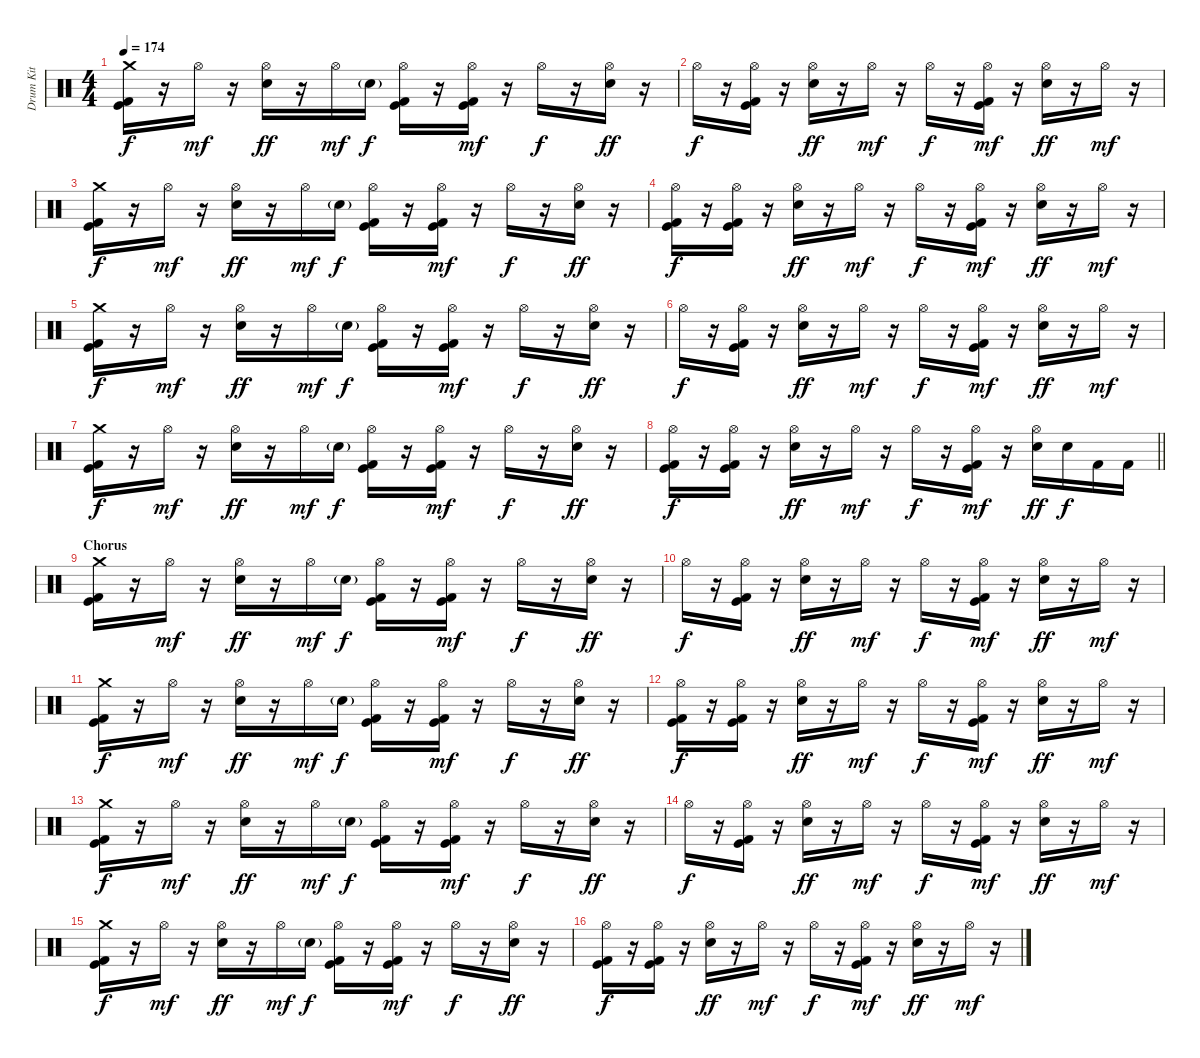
\track ("Drum Kit" "Drum Kit") {instrument percussion}
\staff {score}
\articulation defaults
\ts (4 4)
\tempo 174
\clef neutral
\ks c
("Crash medium (hit)" "Kick (hit)" "Kick (hit) 2").16{dy f} r.16 "Hi-Hat (open)".16{dy mf} r.16 ("Hi-Hat (open)" "Electric Snare (hit)").16{dy ff} r.16 "Hi-Hat (open)".16{dy mf} "Electric Snare (hit)"{g}.16{dy f} ("Hi-Hat (open)" "Kick (hit)" "Kick (hit) 2").16 r.16 ("Hi-Hat (open)" "Kick (hit)" "Kick (hit) 2").16{dy mf} r.16 "Hi-Hat (open)".16{dy f} r.16 ("Hi-Hat (open)" "Electric Snare (hit)").16{dy ff} r.16 |
"Hi-Hat (open)".16{dy f} r.16 ("Hi-Hat (open)" "Kick (hit)" "Kick (hit) 2").16 r.16 ("Hi-Hat (open)" "Electric Snare (hit)").16{dy ff} r.16 "Hi-Hat (open)".16{dy mf} r.16 "Hi-Hat (open)".16{dy f} r.16 ("Hi-Hat (open)" "Kick (hit)" "Kick (hit) 2").16{dy mf} r.16 ("Hi-Hat (open)" "Electric Snare (hit)").16{dy ff} r.16 "Hi-Hat (open)".16{dy mf} r.16 |
("Crash medium (hit)" "Kick (hit)" "Kick (hit) 2").16{dy f} r.16 "Hi-Hat (open)".16{dy mf} r.16 ("Hi-Hat (open)" "Electric Snare (hit)").16{dy ff} r.16 "Hi-Hat (open)".16{dy mf} "Electric Snare (hit)"{g}.16{dy f} ("Hi-Hat (open)" "Kick (hit)" "Kick (hit) 2").16 r.16 ("Hi-Hat (open)" "Kick (hit)" "Kick (hit) 2").16{dy mf} r.16 "Hi-Hat (open)".16{dy f} r.16 ("Hi-Hat (open)" "Electric Snare (hit)").16{dy ff} r.16 |
("Hi-Hat (open)" "Kick (hit)" "Kick (hit) 2").16{dy f} r.16 ("Hi-Hat (open)" "Kick (hit)" "Kick (hit) 2").16 r.16 ("Hi-Hat (open)" "Electric Snare (hit)").16{dy ff} r.16 "Hi-Hat (open)".16{dy mf} r.16 "Hi-Hat (open)".16{dy f} r.16 ("Hi-Hat (open)" "Kick (hit)" "Kick (hit) 2").16{dy mf} r.16 ("Hi-Hat (open)" "Electric Snare (hit)").16{dy ff} r.16 "Hi-Hat (open)".16{dy mf} r.16 |
("Crash medium (hit)" "Kick (hit)" "Kick (hit) 2").16{dy f} r.16 "Hi-Hat (open)".16{dy mf} r.16 ("Hi-Hat (open)" "Electric Snare (hit)").16{dy ff} r.16 "Hi-Hat (open)".16{dy mf} "Electric Snare (hit)"{g}.16{dy f} ("Hi-Hat (open)" "Kick (hit)" "Kick (hit) 2").16 r.16 ("Hi-Hat (open)" "Kick (hit)" "Kick (hit) 2").16{dy mf} r.16 "Hi-Hat (open)".16{dy f} r.16 ("Hi-Hat (open)" "Electric Snare (hit)").16{dy ff} r.16 |
"Hi-Hat (open)".16{dy f} r.16 ("Hi-Hat (open)" "Kick (hit)" "Kick (hit) 2").16 r.16 ("Hi-Hat (open)" "Electric Snare (hit)").16{dy ff} r.16 "Hi-Hat (open)".16{dy mf} r.16 "Hi-Hat (open)".16{dy f} r.16 ("Hi-Hat (open)" "Kick (hit)" "Kick (hit) 2").16{dy mf} r.16 ("Hi-Hat (open)" "Electric Snare (hit)").16{dy ff} r.16 "Hi-Hat (open)".16{dy mf} r.16 |
("Crash medium (hit)" "Kick (hit)" "Kick (hit) 2").16{dy f} r.16 "Hi-Hat (open)".16{dy mf} r.16 ("Hi-Hat (open)" "Electric Snare (hit)").16{dy ff} r.16 "Hi-Hat (open)".16{dy mf} "Electric Snare (hit)"{g}.16{dy f} ("Hi-Hat (open)" "Kick (hit)" "Kick (hit) 2").16 r.16 ("Hi-Hat (open)" "Kick (hit)" "Kick (hit) 2").16{dy mf} r.16 "Hi-Hat (open)".16{dy f} r.16 ("Hi-Hat (open)" "Electric Snare (hit)").16{dy ff} r.16 |
\barLineRight lightlight
("Hi-Hat (open)" "Kick (hit)" "Kick (hit) 2").16{dy f} r.16 ("Hi-Hat (open)" "Kick (hit)" "Kick (hit) 2").16 r.16 ("Hi-Hat (open)" "Electric Snare (hit)").16{dy ff} r.16 "Hi-Hat (open)".16{dy mf} r.16 "Hi-Hat (open)".16{dy f} r.16 ("Hi-Hat (open)" "Kick (hit)" "Kick (hit) 2").16{dy mf} r.16 ("Hi-Hat (open)" "Electric Snare (hit)").16{dy ff} "Electric Snare (hit)".16{dy f} "Kick (hit) 2".16 "Kick (hit) 2".16 |
\section ("" "Chorus")
("Crash medium (hit)" "Kick (hit)" "Kick (hit) 2").16 r.16 "Hi-Hat (open)".16{dy mf} r.16 ("Hi-Hat (open)" "Electric Snare (hit)").16{dy ff} r.16 "Hi-Hat (open)".16{dy mf} "Electric Snare (hit)"{g}.16{dy f} ("Hi-Hat (open)" "Kick (hit)" "Kick (hit) 2").16 r.16 ("Hi-Hat (open)" "Kick (hit)" "Kick (hit) 2").16{dy mf} r.16 "Hi-Hat (open)".16{dy f} r.16 ("Hi-Hat (open)" "Electric Snare (hit)").16{dy ff} r.16 |
"Hi-Hat (open)".16{dy f} r.16 ("Hi-Hat (open)" "Kick (hit)" "Kick (hit) 2").16 r.16 ("Hi-Hat (open)" "Electric Snare (hit)").16{dy ff} r.16 "Hi-Hat (open)".16{dy mf} r.16 "Hi-Hat (open)".16{dy f} r.16 ("Hi-Hat (open)" "Kick (hit)" "Kick (hit) 2").16{dy mf} r.16 ("Hi-Hat (open)" "Electric Snare (hit)").16{dy ff} r.16 "Hi-Hat (open)".16{dy mf} r.16 |
("Crash medium (hit)" "Kick (hit)" "Kick (hit) 2").16{dy f} r.16 "Hi-Hat (open)".16{dy mf} r.16 ("Hi-Hat (open)" "Electric Snare (hit)").16{dy ff} r.16 "Hi-Hat (open)".16{dy mf} "Electric Snare (hit)"{g}.16{dy f} ("Hi-Hat (open)" "Kick (hit)" "Kick (hit) 2").16 r.16 ("Hi-Hat (open)" "Kick (hit)" "Kick (hit) 2").16{dy mf} r.16 "Hi-Hat (open)".16{dy f} r.16 ("Hi-Hat (open)" "Electric Snare (hit)").16{dy ff} r.16 |
("Hi-Hat (open)" "Kick (hit)" "Kick (hit) 2").16{dy f} r.16 ("Hi-Hat (open)" "Kick (hit)" "Kick (hit) 2").16 r.16 ("Hi-Hat (open)" "Electric Snare (hit)").16{dy ff} r.16 "Hi-Hat (open)".16{dy mf} r.16 "Hi-Hat (open)".16{dy f} r.16 ("Hi-Hat (open)" "Kick (hit)" "Kick (hit) 2").16{dy mf} r.16 ("Hi-Hat (open)" "Electric Snare (hit)").16{dy ff} r.16 "Hi-Hat (open)".16{dy mf} r.16 |
("Crash medium (hit)" "Kick (hit)" "Kick (hit) 2").16{dy f} r.16 "Hi-Hat (open)".16{dy mf} r.16 ("Hi-Hat (open)" "Electric Snare (hit)").16{dy ff} r.16 "Hi-Hat (open)".16{dy mf} "Electric Snare (hit)"{g}.16{dy f} ("Hi-Hat (open)" "Kick (hit)" "Kick (hit) 2").16 r.16 ("Hi-Hat (open)" "Kick (hit)" "Kick (hit) 2").16{dy mf} r.16 "Hi-Hat (open)".16{dy f} r.16 ("Hi-Hat (open)" "Electric Snare (hit)").16{dy ff} r.16 |
"Hi-Hat (open)".16{dy f} r.16 ("Hi-Hat (open)" "Kick (hit)" "Kick (hit) 2").16 r.16 ("Hi-Hat (open)" "Electric Snare (hit)").16{dy ff} r.16 "Hi-Hat (open)".16{dy mf} r.16 "Hi-Hat (open)".16{dy f} r.16 ("Hi-Hat (open)" "Kick (hit)" "Kick (hit) 2").16{dy mf} r.16 ("Hi-Hat (open)" "Electric Snare (hit)").16{dy ff} r.16 "Hi-Hat (open)".16{dy mf} r.16 |
("Crash medium (hit)" "Kick (hit)" "Kick (hit) 2").16{dy f} r.16 "Hi-Hat (open)".16{dy mf} r.16 ("Hi-Hat (open)" "Electric Snare (hit)").16{dy ff} r.16 "Hi-Hat (open)".16{dy mf} "Electric Snare (hit)"{g}.16{dy f} ("Hi-Hat (open)" "Kick (hit)" "Kick (hit) 2").16 r.16 ("Hi-Hat (open)" "Kick (hit)" "Kick (hit) 2").16{dy mf} r.16 "Hi-Hat (open)".16{dy f} r.16 ("Hi-Hat (open)" "Electric Snare (hit)").16{dy ff} r.16 |
("Hi-Hat (open)" "Kick (hit)" "Kick (hit) 2").16{dy f} r.16 ("Hi-Hat (open)" "Kick (hit)" "Kick (hit) 2").16 r.16 ("Hi-Hat (open)" "Electric Snare (hit)").16{dy ff} r.16 "Hi-Hat (open)".16{dy mf} r.16 "Hi-Hat (open)".16{dy f} r.16 ("Hi-Hat (open)" "Kick (hit)" "Kick (hit) 2").16{dy mf} r.16 ("Hi-Hat (open)" "Electric Snare (hit)").16{dy ff} r.16 "Hi-Hat (open)".16{dy mf} r.16
